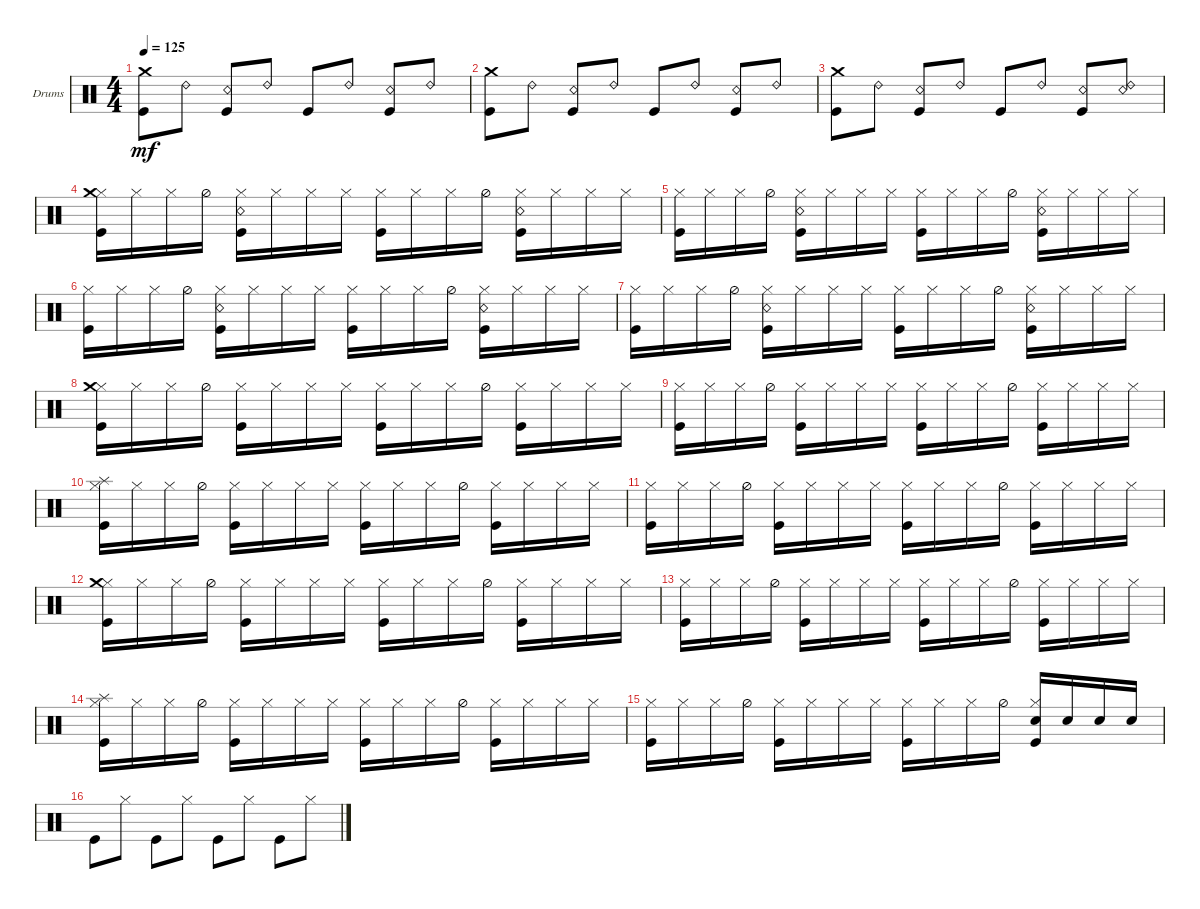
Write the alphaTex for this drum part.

\defaultSystemsLayout 4
\bracketExtendMode groupsimilarinstruments
\firstSystemTrackNameOrientation horizontal
\otherSystemsTrackNameOrientation horizontal
\track ("Drumkit" "Drums") {instrument percussion}
\staff {score}
\articulation defaults
\ts (4 4)
\tempo 125
\clef neutral
\ks c
("Kick (hit)" "Crash medium (hit)").8{dy mf} "Ride (bell) 2".8 ("Kick (hit)" "Snare (rim shot)").8 "Ride (bell) 2".8 "Kick (hit)".8 "Ride (bell) 2".8 ("Kick (hit)" "Snare (rim shot)").8 "Ride (bell) 2".8 |
("Kick (hit)" "Crash medium (hit)").8 "Ride (bell) 2".8 ("Kick (hit)" "Snare (rim shot)").8 "Ride (bell) 2".8 "Kick (hit)".8 "Ride (bell) 2".8 ("Kick (hit)" "Snare (rim shot)").8 "Ride (bell) 2".8 |
("Kick (hit)" "Crash medium (hit)").8 "Ride (bell) 2".8 ("Kick (hit)" "Snare (rim shot)").8 "Ride (bell) 2".8 "Kick (hit)".8 "Ride (bell) 2".8 ("Kick (hit)" "Snare (rim shot)").8 ("Ride (bell) 2" "Snare (rim shot)").8 |
("Hi-Hat (closed)" "Kick (hit)" "Crash medium (hit)").16 "Hi-Hat (closed)".16 "Hi-Hat (closed)".16 "Hi-Hat (half)".16 ("Hi-Hat (closed)" "Kick (hit)" "Snare (rim shot)").16 "Hi-Hat (closed)".16 "Hi-Hat (closed)".16 "Hi-Hat (closed)".16 ("Hi-Hat (closed)" "Kick (hit)").16 "Hi-Hat (closed)".16 "Hi-Hat (closed)".16 "Hi-Hat (half)".16 ("Hi-Hat (closed)" "Kick (hit)" "Snare (rim shot)").16 "Hi-Hat (closed)".16 "Hi-Hat (closed)".16 "Hi-Hat (closed)".16 |
("Hi-Hat (closed)" "Kick (hit)").16 "Hi-Hat (closed)".16 "Hi-Hat (closed)".16 "Hi-Hat (half)".16 ("Hi-Hat (closed)" "Kick (hit)" "Snare (rim shot)").16 "Hi-Hat (closed)".16 "Hi-Hat (closed)".16 "Hi-Hat (closed)".16 ("Hi-Hat (closed)" "Kick (hit)").16 "Hi-Hat (closed)".16 "Hi-Hat (closed)".16 "Hi-Hat (half)".16 ("Hi-Hat (closed)" "Kick (hit)" "Snare (rim shot)").16 "Hi-Hat (closed)".16 "Hi-Hat (closed)".16 "Hi-Hat (closed)".16 |
("Hi-Hat (closed)" "Kick (hit)").16 "Hi-Hat (closed)".16 "Hi-Hat (closed)".16 "Hi-Hat (half)".16 ("Hi-Hat (closed)" "Kick (hit)" "Snare (rim shot)").16 "Hi-Hat (closed)".16 "Hi-Hat (closed)".16 "Hi-Hat (closed)".16 ("Hi-Hat (closed)" "Kick (hit)").16 "Hi-Hat (closed)".16 "Hi-Hat (closed)".16 "Hi-Hat (half)".16 ("Hi-Hat (closed)" "Kick (hit)" "Snare (rim shot)").16 "Hi-Hat (closed)".16 "Hi-Hat (closed)".16 "Hi-Hat (closed)".16 |
("Hi-Hat (closed)" "Kick (hit)").16 "Hi-Hat (closed)".16 "Hi-Hat (closed)".16 "Hi-Hat (half)".16 ("Hi-Hat (closed)" "Kick (hit)" "Snare (rim shot)").16 "Hi-Hat (closed)".16 "Hi-Hat (closed)".16 "Hi-Hat (closed)".16 ("Hi-Hat (closed)" "Kick (hit)").16 "Hi-Hat (closed)".16 "Hi-Hat (closed)".16 "Hi-Hat (half)".16 ("Hi-Hat (closed)" "Kick (hit)" "Snare (rim shot)").16 "Hi-Hat (closed)".16 "Hi-Hat (closed)".16 "Hi-Hat (closed)".16 |
("Hi-Hat (closed)" "Kick (hit)" "Crash medium (hit)").16 "Hi-Hat (closed)".16 "Hi-Hat (closed)".16 "Hi-Hat (half)".16 ("Hi-Hat (closed)" "Kick (hit)").16 "Hi-Hat (closed)".16 "Hi-Hat (closed)".16 "Hi-Hat (closed)".16 ("Hi-Hat (closed)" "Kick (hit)").16 "Hi-Hat (closed)".16 "Hi-Hat (closed)".16 "Hi-Hat (half)".16 ("Hi-Hat (closed)" "Kick (hit)").16 "Hi-Hat (closed)".16 "Hi-Hat (closed)".16 "Hi-Hat (closed)".16 |
("Hi-Hat (closed)" "Kick (hit)").16 "Hi-Hat (closed)".16 "Hi-Hat (closed)".16 "Hi-Hat (half)".16 ("Hi-Hat (closed)" "Kick (hit)").16 "Hi-Hat (closed)".16 "Hi-Hat (closed)".16 "Hi-Hat (closed)".16 ("Hi-Hat (closed)" "Kick (hit)").16 "Hi-Hat (closed)".16 "Hi-Hat (closed)".16 "Hi-Hat (half)".16 ("Hi-Hat (closed)" "Kick (hit)").16 "Hi-Hat (closed)".16 "Hi-Hat (closed)".16 "Hi-Hat (closed)".16 |
("Hi-Hat (closed)" "Kick (hit)" "Splash (hit)").16 "Hi-Hat (closed)".16 "Hi-Hat (closed)".16 "Hi-Hat (half)".16 ("Hi-Hat (closed)" "Kick (hit)").16 "Hi-Hat (closed)".16 "Hi-Hat (closed)".16 "Hi-Hat (closed)".16 ("Hi-Hat (closed)" "Kick (hit)").16 "Hi-Hat (closed)".16 "Hi-Hat (closed)".16 "Hi-Hat (half)".16 ("Hi-Hat (closed)" "Kick (hit)").16 "Hi-Hat (closed)".16 "Hi-Hat (closed)".16 "Hi-Hat (closed)".16 |
("Hi-Hat (closed)" "Kick (hit)").16 "Hi-Hat (closed)".16 "Hi-Hat (closed)".16 "Hi-Hat (half)".16 ("Hi-Hat (closed)" "Kick (hit)").16 "Hi-Hat (closed)".16 "Hi-Hat (closed)".16 "Hi-Hat (closed)".16 ("Hi-Hat (closed)" "Kick (hit)").16 "Hi-Hat (closed)".16 "Hi-Hat (closed)".16 "Hi-Hat (half)".16 ("Hi-Hat (closed)" "Kick (hit)").16 "Hi-Hat (closed)".16 "Hi-Hat (closed)".16 "Hi-Hat (closed)".16 |
("Hi-Hat (closed)" "Kick (hit)" "Crash medium (hit)").16 "Hi-Hat (closed)".16 "Hi-Hat (closed)".16 "Hi-Hat (half)".16 ("Hi-Hat (closed)" "Kick (hit)").16 "Hi-Hat (closed)".16 "Hi-Hat (closed)".16 "Hi-Hat (closed)".16 ("Hi-Hat (closed)" "Kick (hit)").16 "Hi-Hat (closed)".16 "Hi-Hat (closed)".16 "Hi-Hat (half)".16 ("Hi-Hat (closed)" "Kick (hit)").16 "Hi-Hat (closed)".16 "Hi-Hat (closed)".16 "Hi-Hat (closed)".16 |
("Hi-Hat (closed)" "Kick (hit)").16 "Hi-Hat (closed)".16 "Hi-Hat (closed)".16 "Hi-Hat (half)".16 ("Hi-Hat (closed)" "Kick (hit)").16 "Hi-Hat (closed)".16 "Hi-Hat (closed)".16 "Hi-Hat (closed)".16 ("Hi-Hat (closed)" "Kick (hit)").16 "Hi-Hat (closed)".16 "Hi-Hat (closed)".16 "Hi-Hat (half)".16 ("Hi-Hat (closed)" "Kick (hit)").16 "Hi-Hat (closed)".16 "Hi-Hat (closed)".16 "Hi-Hat (closed)".16 |
("Hi-Hat (closed)" "Kick (hit)" "Splash (hit)").16 "Hi-Hat (closed)".16 "Hi-Hat (closed)".16 "Hi-Hat (half)".16 ("Hi-Hat (closed)" "Kick (hit)").16 "Hi-Hat (closed)".16 "Hi-Hat (closed)".16 "Hi-Hat (closed)".16 ("Hi-Hat (closed)" "Kick (hit)").16 "Hi-Hat (closed)".16 "Hi-Hat (closed)".16 "Hi-Hat (half)".16 ("Hi-Hat (closed)" "Kick (hit)").16 "Hi-Hat (closed)".16 "Hi-Hat (closed)".16 "Hi-Hat (closed)".16 |
("Hi-Hat (closed)" "Kick (hit)").16 "Hi-Hat (closed)".16 "Hi-Hat (closed)".16 "Hi-Hat (half)".16 ("Hi-Hat (closed)" "Kick (hit)").16 "Hi-Hat (closed)".16 "Hi-Hat (closed)".16 "Hi-Hat (closed)".16 ("Hi-Hat (closed)" "Kick (hit)").16 "Hi-Hat (closed)".16 "Hi-Hat (closed)".16 "Hi-Hat (half)".16 ("Hi-Hat (closed)" "Kick (hit)" "Snare (hit) 2").16 "Snare (hit) 2".16 "Snare (hit) 2".16 "Snare (hit) 2".16 |
"Kick (hit)".8 "Hi-Hat (closed)".8 "Kick (hit)".8 "Hi-Hat (closed)".8 "Kick (hit)".8 "Hi-Hat (closed)".8 "Kick (hit)".8 "Hi-Hat (closed)".8
